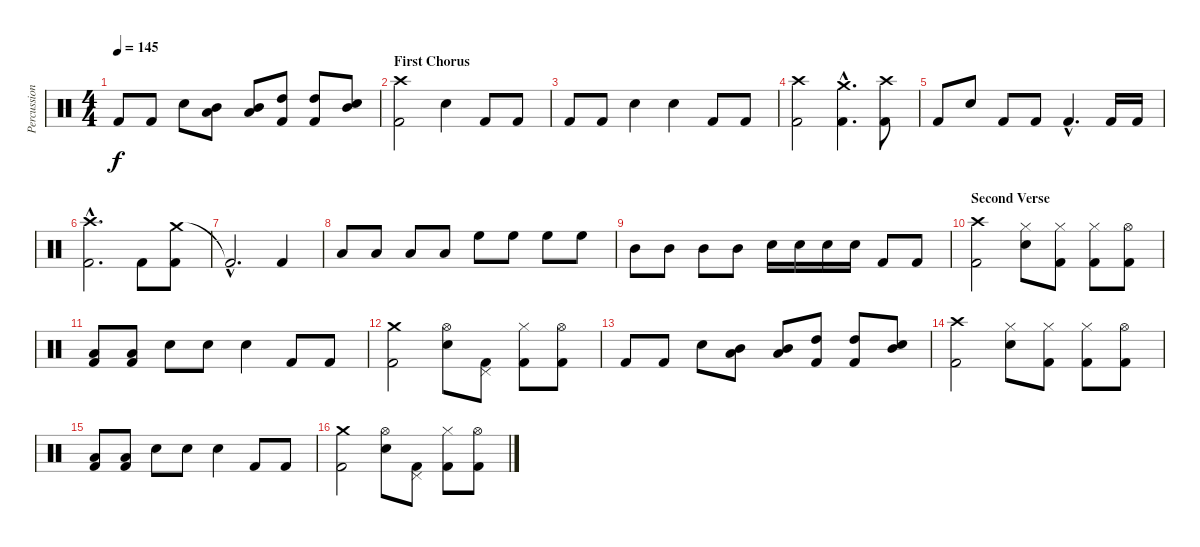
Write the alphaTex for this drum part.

\track ("Percussion" "Percussion") {instrument percussion}
\staff {score}
\articulation defaults
\ts (4 4)
\tempo 145
\clef neutral
\ks c "Kick (hit) 2".8{dy f} "Kick (hit) 2".8 "Snare (hit) 2".8
("Low Tom (hit)" "Mid Tom (hit)").8 ("Low Tom (hit)" "Mid Tom (hit)").8 ("High Tom (hit)" "Kick (hit) 2").8 ("High Tom (hit)" "Kick (hit) 2").8 ("Mid Tom (hit)" "Snare (hit) 2").8 |
\section ("" "First Chorus")
("Crash high (hit)" "Kick (hit) 2").2 "Snare (hit) 2".4 "Kick (hit) 2".8 "Kick (hit) 2".8 |
"Kick (hit) 2".8 "Kick (hit) 2".8 "Snare (hit) 2".4 "Snare (hit) 2".4 "Kick (hit) 2".8 "Kick (hit) 2".8 |
("Crash high (hit)" "Kick (hit) 2").2 ("Crash medium (hit)"{hac} "Kick (hit) 2"{hac}).4{d} ("Crash high (hit)" "Kick (hit) 2").8 |
"Kick (hit) 2".8 "Snare (hit) 2".8 "Kick (hit) 2".8 "Kick (hit) 2".8 "Kick (hit) 2"{hac}.4{d} "Kick (hit) 2".16 "Kick (hit) 2".16 |
("Crash high (hit)"{hac} "Kick (hit) 2"{hac}).2{d} "Kick (hit) 2".8 ("Crash medium (hit)" "Kick (hit) 2").8 |
"Kick (hit) 2"{hac t}.2{d} "Kick (hit) 2".4 |
"Low Tom (hit)".8 "Low Tom (hit)".8 "Low Tom (hit)".8 "Low Tom (hit)".8 "High Floor Tom (hit)".8 "High Floor Tom (hit)".8 "High Floor Tom (hit)".8 "High Floor Tom (hit)".8 |
"Mid Tom (hit)".8 "Mid Tom (hit)".8 "Mid Tom (hit)".8 "Mid Tom (hit)".8 "Snare (hit) 2".16 "Snare (hit) 2".16 "Snare (hit) 2".16 "Snare (hit) 2".16 "Kick (hit) 2".8 "Kick (hit) 2".8 |
\section ("" "Second Verse")
("Crash high (hit)" "Kick (hit) 2").2 ("Hi-Hat (closed)" "Snare (hit) 2").8 ("Hi-Hat (closed)" "Kick (hit) 2").8 ("Hi-Hat (closed)" "Kick (hit) 2").8 ("Hi-Hat (open)" "Kick (hit) 2").8 |
("Low Tom (hit)" "Kick (hit) 2").8 ("Low Tom (hit)" "Kick (hit) 2").8 "Snare (hit) 2".8 "Snare (hit)".8 "Snare (hit) 2".4 "Kick (hit) 2".8 "Kick (hit) 2".8 |
("Crash medium (hit)" "Kick (hit) 2").2 ("Hi-Hat (open)" "Snare (hit) 2").8 ("Pedal Hi-Hat (hit)" "Kick (hit) 2").8 ("Hi-Hat (closed)" "Kick (hit) 2").8 ("Hi-Hat (open)" "Kick (hit) 2").8 |
"Kick (hit) 2".8 "Kick (hit) 2".8 "Snare (hit) 2".8 ("Low Tom (hit)" "Mid Tom (hit)").8 ("Low Tom (hit)" "Mid Tom (hit)").8 ("High Tom (hit)" "Kick (hit) 2").8 ("High Tom (hit)" "Kick (hit) 2").8 ("Mid Tom (hit)" "Snare (hit) 2").8 |
("Crash high (hit)" "Kick (hit) 2").2 ("Hi-Hat (closed)" "Snare (hit) 2").8 ("Hi-Hat (closed)" "Kick (hit) 2").8 ("Hi-Hat (closed)" "Kick (hit) 2").8 ("Hi-Hat (open)" "Kick (hit) 2").8 |
("Low Tom (hit)" "Kick (hit) 2").8 ("Low Tom (hit)" "Kick (hit) 2").8 "Snare (hit) 2".8 "Snare (hit)".8 "Snare (hit) 2".4 "Kick (hit) 2".8 "Kick (hit) 2".8 |
("Crash medium (hit)" "Kick (hit) 2").2 ("Hi-Hat (open)" "Snare (hit) 2").8 ("Pedal Hi-Hat (hit)" "Kick (hit) 2").8 ("Hi-Hat (closed)" "Kick (hit) 2").8 ("Hi-Hat (open)" "Kick (hit) 2").8
